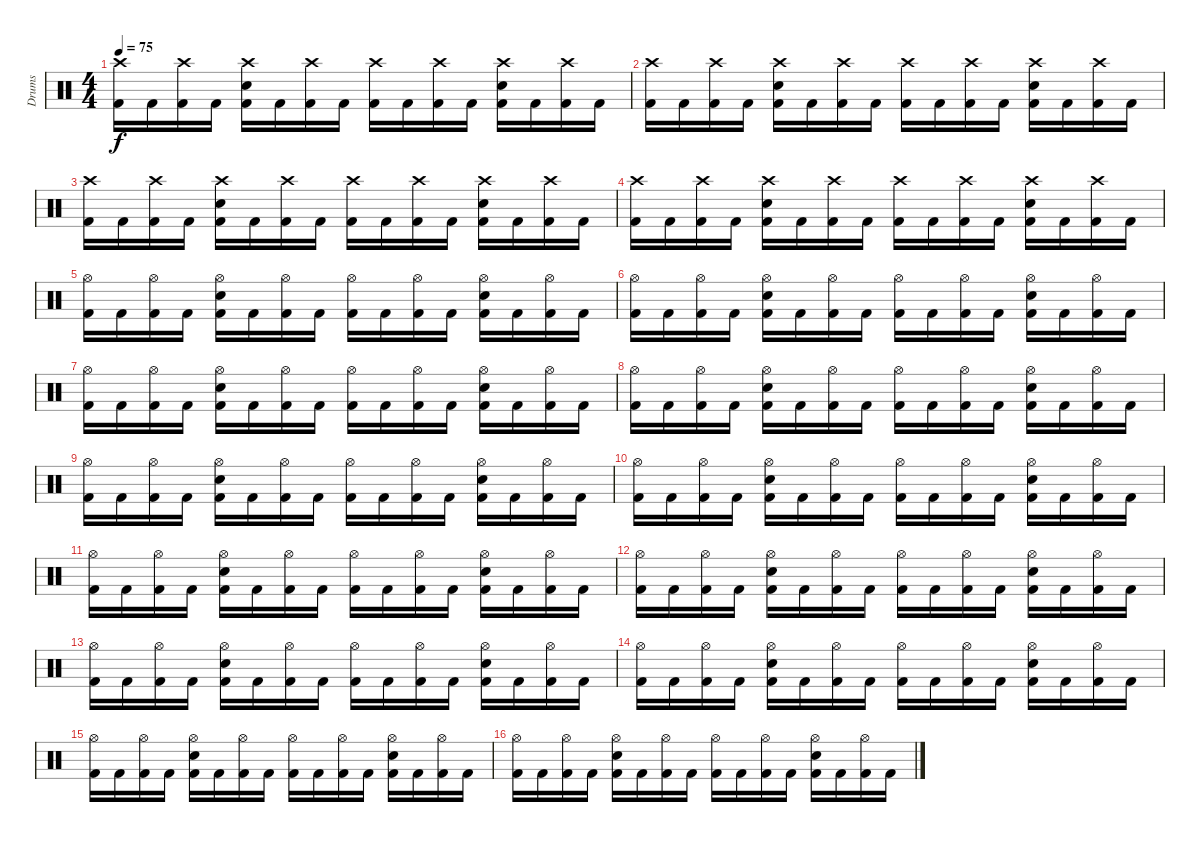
\track ("Drums" "Drums") {instrument percussion}
\staff {score}
\articulation defaults
\ts (4 4)
\tempo 75
\clef neutral
\ks c
("Crash high (hit)" "Kick (hit) 2").16{dy f} "Kick (hit) 2".16 ("Crash high (hit)" "Kick (hit) 2").16 "Kick (hit) 2".16 ("Crash high (hit)" "Snare (hit) 2" "Kick (hit) 2").16 "Kick (hit) 2".16 ("Crash high (hit)" "Kick (hit) 2").16 "Kick (hit) 2".16 ("Crash high (hit)" "Kick (hit) 2").16 "Kick (hit) 2".16 ("Crash high (hit)" "Kick (hit) 2").16 "Kick (hit) 2".16 ("Crash high (hit)" "Snare (hit) 2" "Kick (hit) 2").16 "Kick (hit) 2".16 ("Crash high (hit)" "Kick (hit) 2").16 "Kick (hit) 2".16 |
("Crash high (hit)" "Kick (hit) 2").16 "Kick (hit) 2".16 ("Crash high (hit)" "Kick (hit) 2").16 "Kick (hit) 2".16 ("Crash high (hit)" "Snare (hit) 2" "Kick (hit) 2").16 "Kick (hit) 2".16 ("Crash high (hit)" "Kick (hit) 2").16 "Kick (hit) 2".16 ("Crash high (hit)" "Kick (hit) 2").16 "Kick (hit) 2".16 ("Crash high (hit)" "Kick (hit) 2").16 "Kick (hit) 2".16 ("Crash high (hit)" "Snare (hit) 2" "Kick (hit) 2").16 "Kick (hit) 2".16 ("Crash high (hit)" "Kick (hit) 2").16 "Kick (hit) 2".16 |
("Crash high (hit)" "Kick (hit) 2").16 "Kick (hit) 2".16 ("Crash high (hit)" "Kick (hit) 2").16 "Kick (hit) 2".16 ("Crash high (hit)" "Snare (hit) 2" "Kick (hit) 2").16 "Kick (hit) 2".16 ("Crash high (hit)" "Kick (hit) 2").16 "Kick (hit) 2".16 ("Crash high (hit)" "Kick (hit) 2").16 "Kick (hit) 2".16 ("Crash high (hit)" "Kick (hit) 2").16 "Kick (hit) 2".16 ("Crash high (hit)" "Snare (hit) 2" "Kick (hit) 2").16 "Kick (hit) 2".16 ("Crash high (hit)" "Kick (hit) 2").16 "Kick (hit) 2".16 |
("Crash high (hit)" "Kick (hit) 2").16 "Kick (hit) 2".16 ("Crash high (hit)" "Kick (hit) 2").16 "Kick (hit) 2".16 ("Crash high (hit)" "Snare (hit) 2" "Kick (hit) 2").16 "Kick (hit) 2".16 ("Crash high (hit)" "Kick (hit) 2").16 "Kick (hit) 2".16 ("Crash high (hit)" "Kick (hit) 2").16 "Kick (hit) 2".16 ("Crash high (hit)" "Kick (hit) 2").16 "Kick (hit) 2".16 ("Crash high (hit)" "Snare (hit) 2" "Kick (hit) 2").16 "Kick (hit) 2".16 ("Crash high (hit)" "Kick (hit) 2").16 "Kick (hit) 2".16 |
("Hi-Hat (open)" "Kick (hit) 2").16 "Kick (hit) 2".16 ("Hi-Hat (open)" "Kick (hit) 2").16 "Kick (hit) 2".16 ("Hi-Hat (open)" "Snare (hit) 2" "Kick (hit) 2").16 "Kick (hit) 2".16 ("Hi-Hat (open)" "Kick (hit) 2").16 "Kick (hit) 2".16 ("Hi-Hat (open)" "Kick (hit) 2").16 "Kick (hit) 2".16 ("Hi-Hat (open)" "Kick (hit) 2").16 "Kick (hit) 2".16 ("Hi-Hat (open)" "Snare (hit) 2" "Kick (hit) 2").16 "Kick (hit) 2".16 ("Hi-Hat (open)" "Kick (hit) 2").16 "Kick (hit) 2".16 |
("Hi-Hat (open)" "Kick (hit) 2").16 "Kick (hit) 2".16 ("Hi-Hat (open)" "Kick (hit) 2").16 "Kick (hit) 2".16 ("Hi-Hat (open)" "Snare (hit) 2" "Kick (hit) 2").16 "Kick (hit) 2".16 ("Hi-Hat (open)" "Kick (hit) 2").16 "Kick (hit) 2".16 ("Hi-Hat (open)" "Kick (hit) 2").16 "Kick (hit) 2".16 ("Hi-Hat (open)" "Kick (hit) 2").16 "Kick (hit) 2".16 ("Hi-Hat (open)" "Snare (hit) 2" "Kick (hit) 2").16 "Kick (hit) 2".16 ("Hi-Hat (open)" "Kick (hit) 2").16 "Kick (hit) 2".16 |
("Hi-Hat (open)" "Kick (hit) 2").16 "Kick (hit) 2".16 ("Hi-Hat (open)" "Kick (hit) 2").16 "Kick (hit) 2".16 ("Hi-Hat (open)" "Snare (hit) 2" "Kick (hit) 2").16 "Kick (hit) 2".16 ("Hi-Hat (open)" "Kick (hit) 2").16 "Kick (hit) 2".16 ("Hi-Hat (open)" "Kick (hit) 2").16 "Kick (hit) 2".16 ("Hi-Hat (open)" "Kick (hit) 2").16 "Kick (hit) 2".16 ("Hi-Hat (open)" "Snare (hit) 2" "Kick (hit) 2").16 "Kick (hit) 2".16 ("Hi-Hat (open)" "Kick (hit) 2").16 "Kick (hit) 2".16 |
("Hi-Hat (open)" "Kick (hit) 2").16 "Kick (hit) 2".16 ("Hi-Hat (open)" "Kick (hit) 2").16 "Kick (hit) 2".16 ("Hi-Hat (open)" "Snare (hit) 2" "Kick (hit) 2").16 "Kick (hit) 2".16 ("Hi-Hat (open)" "Kick (hit) 2").16 "Kick (hit) 2".16 ("Hi-Hat (open)" "Kick (hit) 2").16 "Kick (hit) 2".16 ("Hi-Hat (open)" "Kick (hit) 2").16 "Kick (hit) 2".16 ("Hi-Hat (open)" "Snare (hit) 2" "Kick (hit) 2").16 "Kick (hit) 2".16 ("Hi-Hat (open)" "Kick (hit) 2").16 "Kick (hit) 2".16 |
("Hi-Hat (open)" "Kick (hit) 2").16 "Kick (hit) 2".16 ("Hi-Hat (open)" "Kick (hit) 2").16 "Kick (hit) 2".16 ("Hi-Hat (open)" "Snare (hit) 2" "Kick (hit) 2").16 "Kick (hit) 2".16 ("Hi-Hat (open)" "Kick (hit) 2").16 "Kick (hit) 2".16 ("Hi-Hat (open)" "Kick (hit) 2").16 "Kick (hit) 2".16 ("Hi-Hat (open)" "Kick (hit) 2").16 "Kick (hit) 2".16 ("Hi-Hat (open)" "Snare (hit) 2" "Kick (hit) 2").16 "Kick (hit) 2".16 ("Hi-Hat (open)" "Kick (hit) 2").16 "Kick (hit) 2".16 |
("Hi-Hat (open)" "Kick (hit) 2").16 "Kick (hit) 2".16 ("Hi-Hat (open)" "Kick (hit) 2").16 "Kick (hit) 2".16 ("Hi-Hat (open)" "Snare (hit) 2" "Kick (hit) 2").16 "Kick (hit) 2".16 ("Hi-Hat (open)" "Kick (hit) 2").16 "Kick (hit) 2".16 ("Hi-Hat (open)" "Kick (hit) 2").16 "Kick (hit) 2".16 ("Hi-Hat (open)" "Kick (hit) 2").16 "Kick (hit) 2".16 ("Hi-Hat (open)" "Snare (hit) 2" "Kick (hit) 2").16 "Kick (hit) 2".16 ("Hi-Hat (open)" "Kick (hit) 2").16 "Kick (hit) 2".16 |
("Hi-Hat (open)" "Kick (hit) 2").16 "Kick (hit) 2".16 ("Hi-Hat (open)" "Kick (hit) 2").16 "Kick (hit) 2".16 ("Hi-Hat (open)" "Snare (hit) 2" "Kick (hit) 2").16 "Kick (hit) 2".16 ("Hi-Hat (open)" "Kick (hit) 2").16 "Kick (hit) 2".16 ("Hi-Hat (open)" "Kick (hit) 2").16 "Kick (hit) 2".16 ("Hi-Hat (open)" "Kick (hit) 2").16 "Kick (hit) 2".16 ("Hi-Hat (open)" "Snare (hit) 2" "Kick (hit) 2").16 "Kick (hit) 2".16 ("Hi-Hat (open)" "Kick (hit) 2").16 "Kick (hit) 2".16 |
("Hi-Hat (open)" "Kick (hit) 2").16 "Kick (hit) 2".16 ("Hi-Hat (open)" "Kick (hit) 2").16 "Kick (hit) 2".16 ("Hi-Hat (open)" "Snare (hit) 2" "Kick (hit) 2").16 "Kick (hit) 2".16 ("Hi-Hat (open)" "Kick (hit) 2").16 "Kick (hit) 2".16 ("Hi-Hat (open)" "Kick (hit) 2").16 "Kick (hit) 2".16 ("Hi-Hat (open)" "Kick (hit) 2").16 "Kick (hit) 2".16 ("Hi-Hat (open)" "Snare (hit) 2" "Kick (hit) 2").16 "Kick (hit) 2".16 ("Hi-Hat (open)" "Kick (hit) 2").16 "Kick (hit) 2".16 |
("Hi-Hat (open)" "Kick (hit) 2").16 "Kick (hit) 2".16 ("Hi-Hat (open)" "Kick (hit) 2").16 "Kick (hit) 2".16 ("Hi-Hat (open)" "Snare (hit) 2" "Kick (hit) 2").16 "Kick (hit) 2".16 ("Hi-Hat (open)" "Kick (hit) 2").16 "Kick (hit) 2".16 ("Hi-Hat (open)" "Kick (hit) 2").16 "Kick (hit) 2".16 ("Hi-Hat (open)" "Kick (hit) 2").16 "Kick (hit) 2".16 ("Hi-Hat (open)" "Snare (hit) 2" "Kick (hit) 2").16 "Kick (hit) 2".16 ("Hi-Hat (open)" "Kick (hit) 2").16 "Kick (hit) 2".16 |
("Hi-Hat (open)" "Kick (hit) 2").16 "Kick (hit) 2".16 ("Hi-Hat (open)" "Kick (hit) 2").16 "Kick (hit) 2".16 ("Hi-Hat (open)" "Snare (hit) 2" "Kick (hit) 2").16 "Kick (hit) 2".16 ("Hi-Hat (open)" "Kick (hit) 2").16 "Kick (hit) 2".16 ("Hi-Hat (open)" "Kick (hit) 2").16 "Kick (hit) 2".16 ("Hi-Hat (open)" "Kick (hit) 2").16 "Kick (hit) 2".16 ("Hi-Hat (open)" "Snare (hit) 2" "Kick (hit) 2").16 "Kick (hit) 2".16 ("Hi-Hat (open)" "Kick (hit) 2").16 "Kick (hit) 2".16 |
("Hi-Hat (open)" "Kick (hit) 2").16 "Kick (hit) 2".16 ("Hi-Hat (open)" "Kick (hit) 2").16 "Kick (hit) 2".16 ("Hi-Hat (open)" "Snare (hit) 2" "Kick (hit) 2").16 "Kick (hit) 2".16 ("Hi-Hat (open)" "Kick (hit) 2").16 "Kick (hit) 2".16 ("Hi-Hat (open)" "Kick (hit) 2").16 "Kick (hit) 2".16 ("Hi-Hat (open)" "Kick (hit) 2").16 "Kick (hit) 2".16 ("Hi-Hat (open)" "Snare (hit) 2" "Kick (hit) 2").16 "Kick (hit) 2".16 ("Hi-Hat (open)" "Kick (hit) 2").16 "Kick (hit) 2".16 |
("Hi-Hat (open)" "Kick (hit) 2").16 "Kick (hit) 2".16 ("Hi-Hat (open)" "Kick (hit) 2").16 "Kick (hit) 2".16 ("Hi-Hat (open)" "Snare (hit) 2" "Kick (hit) 2").16 "Kick (hit) 2".16 ("Hi-Hat (open)" "Kick (hit) 2").16 "Kick (hit) 2".16 ("Hi-Hat (open)" "Kick (hit) 2").16 "Kick (hit) 2".16 ("Hi-Hat (open)" "Kick (hit) 2").16 "Kick (hit) 2".16 ("Hi-Hat (open)" "Snare (hit) 2" "Kick (hit) 2").16 "Kick (hit) 2".16 ("Hi-Hat (open)" "Kick (hit) 2").16 "Kick (hit) 2".16
